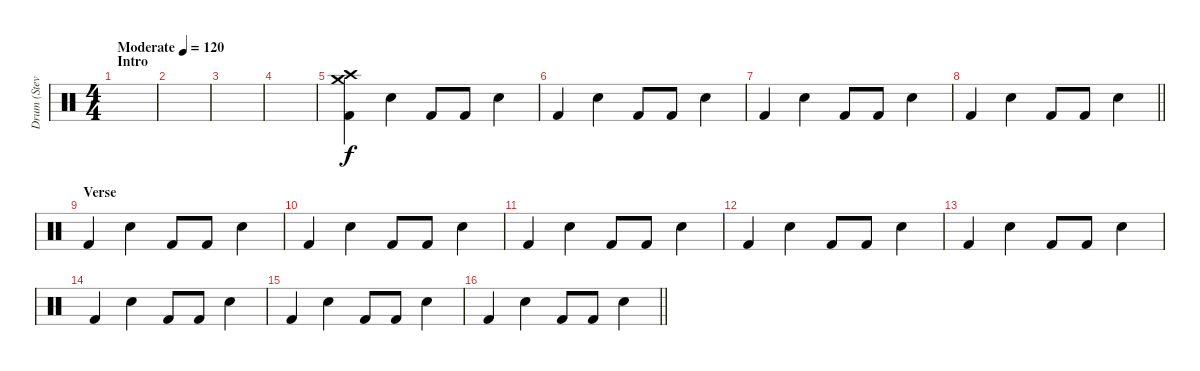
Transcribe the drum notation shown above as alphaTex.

\track ("Drum (Steven)" "Drum (Stev") {instrument percussion}
\staff {score}
\articulation defaults
\ts (4 4)
\section ("" "Intro")
\tempo (120 "Moderate")
\clef neutral
\ks c
|
|
|
|
("Kick (hit) 2" "Crash high (hit)" "Crash medium (hit)").4 "Snare (hit) 2".4 "Kick (hit) 2".8 "Kick (hit) 2".8 "Snare (hit) 2".4 |
"Kick (hit) 2".4 "Snare (hit) 2".4 "Kick (hit) 2".8 "Kick (hit) 2".8 "Snare (hit) 2".4 |
"Kick (hit) 2".4 "Snare (hit) 2".4 "Kick (hit) 2".8 "Kick (hit) 2".8 "Snare (hit) 2".4 |
\barLineRight lightlight "Kick (hit) 2".4 "Snare (hit) 2".4 "Kick (hit) 2".8 "Kick (hit) 2".8 "Snare (hit) 2".4
|
\section ("" "Verse")
"Kick (hit) 2".4 "Snare (hit) 2".4 "Kick (hit) 2".8 "Kick (hit) 2".8 "Snare (hit) 2".4 |
"Kick (hit) 2".4 "Snare (hit) 2".4 "Kick (hit) 2".8 "Kick (hit) 2".8 "Snare (hit) 2".4 |
"Kick (hit) 2".4 "Snare (hit) 2".4 "Kick (hit) 2".8 "Kick (hit) 2".8 "Snare (hit) 2".4 |
"Kick (hit) 2".4 "Snare (hit) 2".4 "Kick (hit) 2".8 "Kick (hit) 2".8 "Snare (hit) 2".4 |
"Kick (hit) 2".4 "Snare (hit) 2".4 "Kick (hit) 2".8 "Kick (hit) 2".8 "Snare (hit) 2".4 |
"Kick (hit) 2".4 "Snare (hit) 2".4 "Kick (hit) 2".8 "Kick (hit) 2".8 "Snare (hit) 2".4 |
"Kick (hit) 2".4 "Snare (hit) 2".4 "Kick (hit) 2".8 "Kick (hit) 2".8 "Snare (hit) 2".4 |
\barLineRight lightlight "Kick (hit) 2".4 "Snare (hit) 2".4 "Kick (hit) 2".8 "Kick (hit) 2".8 "Snare (hit) 2".4
